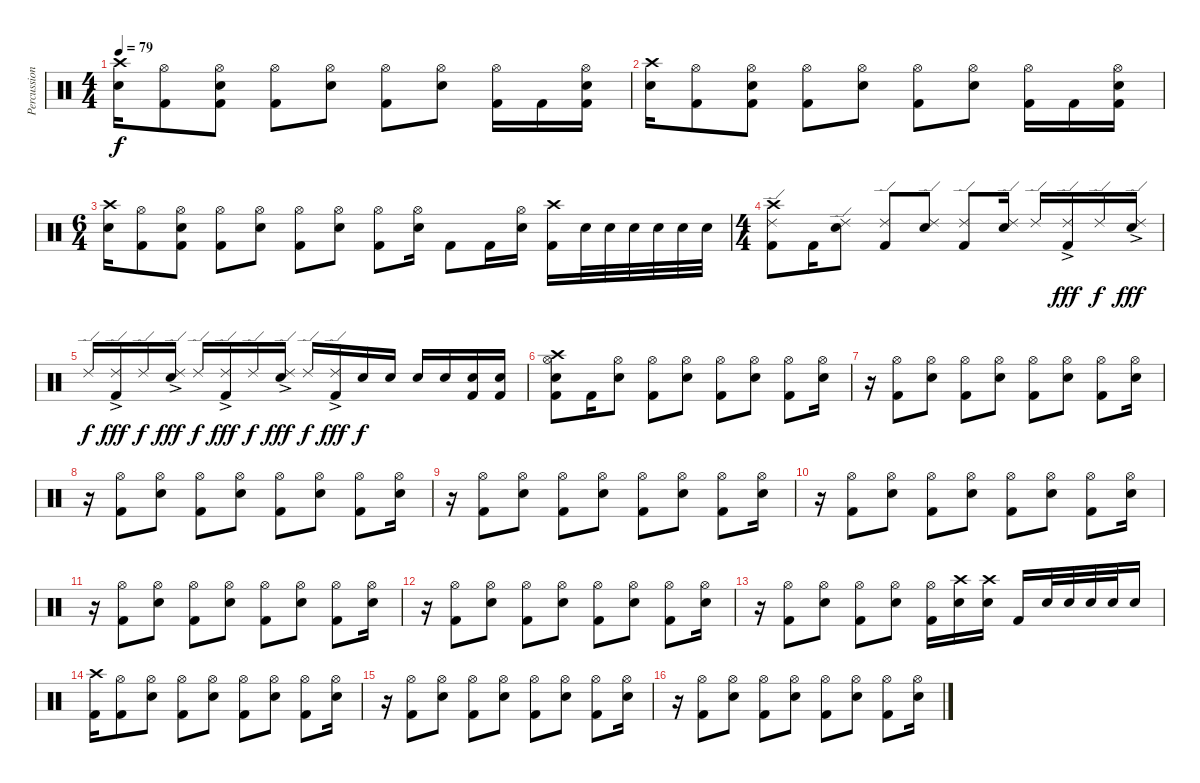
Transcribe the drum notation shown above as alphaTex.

\track ("Percussion" "Percussion") {instrument percussion}
\staff {score}
\articulation defaults
\ts (4 4)
\tempo 79
\clef neutral
\ks c
("Crash high (hit)" "Electric Snare (hit)").16{dy f} ("Hi-Hat (open)" "Kick (hit) 2").8 ("Hi-Hat (open)" "Electric Snare (hit)" "Kick (hit) 2").8 ("Hi-Hat (open)" "Kick (hit) 2").8 ("Hi-Hat (open)" "Electric Snare (hit)").8 ("Hi-Hat (open)" "Kick (hit) 2").8 ("Hi-Hat (open)" "Electric Snare (hit)").8 ("Hi-Hat (open)" "Kick (hit) 2").16 "Kick (hit) 2".16 ("Hi-Hat (open)" "Electric Snare (hit)" "Kick (hit) 2").16 |
("Crash high (hit)" "Electric Snare (hit)").16 ("Hi-Hat (open)" "Kick (hit) 2").8 ("Hi-Hat (open)" "Electric Snare (hit)" "Kick (hit) 2").8 ("Hi-Hat (open)" "Kick (hit) 2").8 ("Hi-Hat (open)" "Electric Snare (hit)").8 ("Hi-Hat (open)" "Kick (hit) 2").8 ("Hi-Hat (open)" "Electric Snare (hit)").8 ("Hi-Hat (open)" "Kick (hit) 2").16 "Kick (hit) 2".16 ("Hi-Hat (open)" "Electric Snare (hit)" "Kick (hit) 2").16 |
\ts (6 4)
("Crash high (hit)" "Electric Snare (hit)").16 ("Hi-Hat (open)" "Kick (hit) 2").8 ("Hi-Hat (open)" "Electric Snare (hit)" "Kick (hit) 2").8 ("Hi-Hat (open)" "Kick (hit) 2").8 ("Hi-Hat (open)" "Electric Snare (hit)").8 ("Hi-Hat (open)" "Kick (hit) 2").8 ("Hi-Hat (open)" "Electric Snare (hit)").8 ("Hi-Hat (open)" "Kick (hit) 2").8 ("Hi-Hat (open)" "Electric Snare (hit)").16 "Kick (hit) 2".8 "Kick (hit) 2".16 ("Hi-Hat (open)" "Electric Snare (hit)").16 ("Crash high (hit)" "Kick (hit) 2").16 "Electric Snare (hit)".32 "Electric Snare (hit)".32 "Electric Snare (hit)".32 "Electric Snare (hit)".32 "Electric Snare (hit)".32 "Electric Snare (hit)".32 |
\ts (4 4)
("Crash high (hit)" "Ride (edge) 2" "Kick (hit) 2").8 "Kick (hit) 2".16 ("Ride (edge) 2" "Electric Snare (hit)").8 ("Ride (edge) 2" "Kick (hit) 2").8 ("Ride (edge) 2" "Electric Snare (hit)").8 ("Ride (edge) 2" "Kick (hit) 2").8 ("Ride (edge) 2" "Electric Snare (hit)").16 "Ride (edge) 2".16 ("Ride (edge) 2"{ac} "Kick (hit) 2").16{dy fff} "Ride (edge) 2".16{dy f} ("Ride (edge) 2"{ac} "Electric Snare (hit)").16{dy fff} |
"Ride (edge) 2".16{dy f} ("Ride (edge) 2"{ac} "Kick (hit) 2").16{dy fff} "Ride (edge) 2".16{dy f} ("Ride (edge) 2"{ac} "Electric Snare (hit)").16{dy fff} "Ride (edge) 2".16{dy f} ("Ride (edge) 2"{ac} "Kick (hit) 2").16{dy fff} "Ride (edge) 2".16{dy f} ("Ride (edge) 2"{ac} "Electric Snare (hit)").16{dy fff} "Ride (edge) 2".16{dy f} ("Ride (edge) 2"{ac} "Kick (hit) 2").16{dy fff} "Electric Snare (hit)".16{dy f} "Electric Snare (hit)".16 "Electric Snare (hit)".16 "Electric Snare (hit)".16 ("Electric Snare (hit)" "Kick (hit) 2").16 ("Electric Snare (hit)" "Kick (hit) 2").16 |
("Crash high (hit)" "Hi-Hat (open)" "Electric Snare (hit)" "Kick (hit) 2").8 "Kick (hit) 2".16 ("Hi-Hat (open)" "Electric Snare (hit)").8 ("Hi-Hat (open)" "Kick (hit) 2").8 ("Hi-Hat (open)" "Electric Snare (hit)").8 ("Hi-Hat (open)" "Kick (hit) 2").8 ("Hi-Hat (open)" "Electric Snare (hit)").8 ("Hi-Hat (open)" "Kick (hit) 2").8 ("Hi-Hat (open)" "Electric Snare (hit)").16 |
r.16 ("Hi-Hat (open)" "Kick (hit) 2").8 ("Hi-Hat (open)" "Electric Snare (hit)").8 ("Hi-Hat (open)" "Kick (hit) 2").8 ("Hi-Hat (open)" "Electric Snare (hit)").8 ("Hi-Hat (open)" "Kick (hit) 2").8 ("Hi-Hat (open)" "Electric Snare (hit)").8 ("Hi-Hat (open)" "Kick (hit) 2").8 ("Hi-Hat (open)" "Electric Snare (hit)").16 |
r.16 ("Hi-Hat (open)" "Kick (hit) 2").8 ("Hi-Hat (open)" "Electric Snare (hit)").8 ("Hi-Hat (open)" "Kick (hit) 2").8 ("Hi-Hat (open)" "Electric Snare (hit)").8 ("Hi-Hat (open)" "Kick (hit) 2").8 ("Hi-Hat (open)" "Electric Snare (hit)").8 ("Hi-Hat (open)" "Kick (hit) 2").8 ("Hi-Hat (open)" "Electric Snare (hit)").16 |
r.16 ("Hi-Hat (open)" "Kick (hit) 2").8 ("Hi-Hat (open)" "Electric Snare (hit)").8 ("Hi-Hat (open)" "Kick (hit) 2").8 ("Hi-Hat (open)" "Electric Snare (hit)").8 ("Hi-Hat (open)" "Kick (hit) 2").8 ("Hi-Hat (open)" "Electric Snare (hit)").8 ("Hi-Hat (open)" "Kick (hit) 2").8 ("Hi-Hat (open)" "Electric Snare (hit)").16 |
r.16 ("Hi-Hat (open)" "Kick (hit) 2").8 ("Hi-Hat (open)" "Electric Snare (hit)").8 ("Hi-Hat (open)" "Kick (hit) 2").8 ("Hi-Hat (open)" "Electric Snare (hit)").8 ("Hi-Hat (open)" "Kick (hit) 2").8 ("Hi-Hat (open)" "Electric Snare (hit)").8 ("Hi-Hat (open)" "Kick (hit) 2").8 ("Hi-Hat (open)" "Electric Snare (hit)").16 |
r.16 ("Hi-Hat (open)" "Kick (hit) 2").8 ("Hi-Hat (open)" "Electric Snare (hit)").8 ("Hi-Hat (open)" "Kick (hit) 2").8 ("Hi-Hat (open)" "Electric Snare (hit)").8 ("Hi-Hat (open)" "Kick (hit) 2").8 ("Hi-Hat (open)" "Electric Snare (hit)").8 ("Hi-Hat (open)" "Kick (hit) 2").8 ("Hi-Hat (open)" "Electric Snare (hit)").16 |
r.16 ("Hi-Hat (open)" "Kick (hit) 2").8 ("Hi-Hat (open)" "Electric Snare (hit)").8 ("Hi-Hat (open)" "Kick (hit) 2").8 ("Hi-Hat (open)" "Electric Snare (hit)").8 ("Hi-Hat (open)" "Kick (hit) 2").8 ("Hi-Hat (open)" "Electric Snare (hit)").8 ("Hi-Hat (open)" "Kick (hit) 2").8 ("Hi-Hat (open)" "Electric Snare (hit)").16 |
r.16 ("Hi-Hat (open)" "Kick (hit) 2").8 ("Hi-Hat (open)" "Electric Snare (hit)").8 ("Hi-Hat (open)" "Kick (hit) 2").8 ("Hi-Hat (open)" "Electric Snare (hit)").8 ("Hi-Hat (open)" "Kick (hit) 2").16 ("Crash high (hit)" "Electric Snare (hit)").16 ("Crash high (hit)" "Electric Snare (hit)").16 "Kick (hit) 2".16 "Electric Snare (hit)".32 "Electric Snare (hit)".32 "Electric Snare (hit)".32 "Electric Snare (hit)".32 "Electric Snare (hit)".16 |
("Crash high (hit)" "Kick (hit) 2").16 ("Hi-Hat (open)" "Kick (hit) 2").8 ("Hi-Hat (open)" "Electric Snare (hit)").8 ("Hi-Hat (open)" "Kick (hit) 2").8 ("Hi-Hat (open)" "Electric Snare (hit)").8 ("Hi-Hat (open)" "Kick (hit) 2").8 ("Hi-Hat (open)" "Electric Snare (hit)").8 ("Hi-Hat (open)" "Kick (hit) 2").8 ("Hi-Hat (open)" "Electric Snare (hit)").16 |
r.16 ("Hi-Hat (open)" "Kick (hit) 2").8 ("Hi-Hat (open)" "Electric Snare (hit)").8 ("Hi-Hat (open)" "Kick (hit) 2").8 ("Hi-Hat (open)" "Electric Snare (hit)").8 ("Hi-Hat (open)" "Kick (hit) 2").8 ("Hi-Hat (open)" "Electric Snare (hit)").8 ("Hi-Hat (open)" "Kick (hit) 2").8 ("Hi-Hat (open)" "Electric Snare (hit)").16 |
r.16 ("Hi-Hat (open)" "Kick (hit) 2").8 ("Hi-Hat (open)" "Electric Snare (hit)").8 ("Hi-Hat (open)" "Kick (hit) 2").8 ("Hi-Hat (open)" "Electric Snare (hit)").8 ("Hi-Hat (open)" "Kick (hit) 2").8 ("Hi-Hat (open)" "Electric Snare (hit)").8 ("Hi-Hat (open)" "Kick (hit) 2").8 ("Hi-Hat (open)" "Electric Snare (hit)").16
